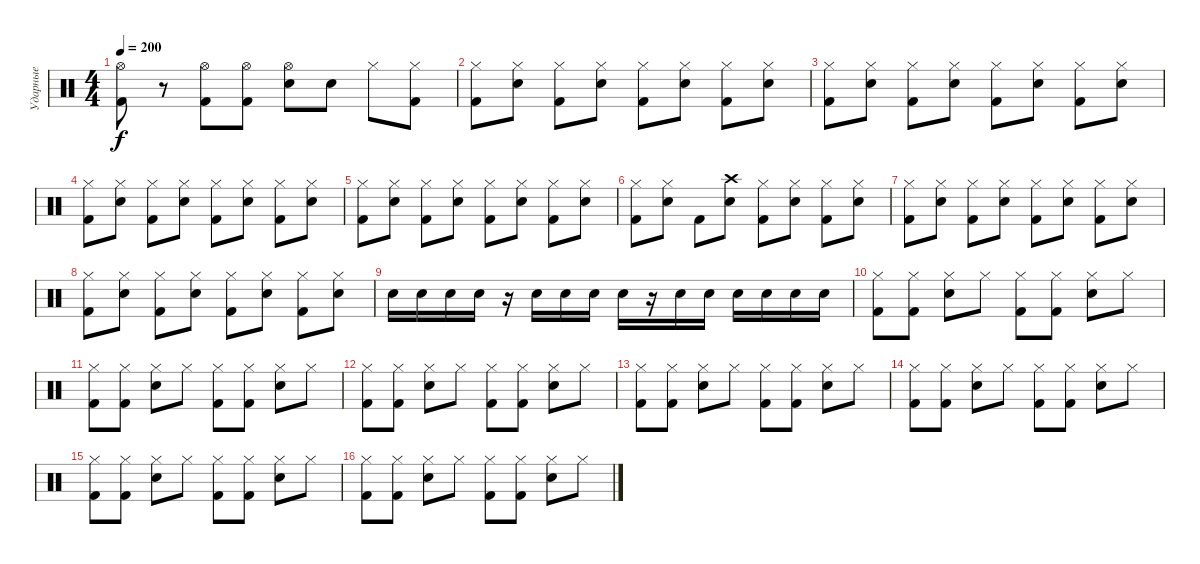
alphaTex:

\track ("Ударные" "Ударные") {instrument percussion}
\staff {score}
\articulation defaults
\ts (4 4)
\tempo 200
\clef neutral
\ks c
("Kick (hit) 2" "Hi-Hat (open)").8{dy f} r.8 ("Kick (hit) 2" "Hi-Hat (open)").8 ("Kick (hit) 2" "Hi-Hat (open)").8 ("Electric Snare (hit)" "Hi-Hat (open)").8 "Electric Snare (hit)".8 "Hi-Hat (closed)".8 ("Kick (hit) 2" "Hi-Hat (closed)").8 |
("Kick (hit) 2" "Hi-Hat (closed)").8 ("Electric Snare (hit)" "Hi-Hat (closed)").8 ("Kick (hit) 2" "Hi-Hat (closed)").8 ("Electric Snare (hit)" "Hi-Hat (closed)").8 ("Kick (hit) 2" "Hi-Hat (closed)").8 ("Electric Snare (hit)" "Hi-Hat (closed)").8 ("Kick (hit) 2" "Hi-Hat (closed)").8 ("Electric Snare (hit)" "Hi-Hat (closed)").8 |
("Kick (hit) 2" "Hi-Hat (closed)").8 ("Electric Snare (hit)" "Hi-Hat (closed)").8 ("Kick (hit) 2" "Hi-Hat (closed)").8 ("Electric Snare (hit)" "Hi-Hat (closed)").8 ("Kick (hit) 2" "Hi-Hat (closed)").8 ("Electric Snare (hit)" "Hi-Hat (closed)").8 ("Kick (hit) 2" "Hi-Hat (closed)").8 ("Electric Snare (hit)" "Hi-Hat (closed)").8 |
("Kick (hit) 2" "Hi-Hat (closed)").8 ("Electric Snare (hit)" "Hi-Hat (closed)").8 ("Kick (hit) 2" "Hi-Hat (closed)").8 ("Electric Snare (hit)" "Hi-Hat (closed)").8 ("Kick (hit) 2" "Hi-Hat (closed)").8 ("Electric Snare (hit)" "Hi-Hat (closed)").8 ("Kick (hit) 2" "Hi-Hat (closed)").8 ("Electric Snare (hit)" "Hi-Hat (closed)").8 |
("Kick (hit) 2" "Hi-Hat (closed)").8 ("Electric Snare (hit)" "Hi-Hat (closed)").8 ("Kick (hit) 2" "Hi-Hat (closed)").8 ("Electric Snare (hit)" "Hi-Hat (closed)").8 ("Kick (hit) 2" "Hi-Hat (closed)").8 ("Electric Snare (hit)" "Hi-Hat (closed)").8 ("Kick (hit) 2" "Hi-Hat (closed)").8 ("Electric Snare (hit)" "Hi-Hat (closed)").8 |
("Kick (hit) 2" "Hi-Hat (closed)").8 ("Electric Snare (hit)" "Hi-Hat (closed)").8 "Kick (hit) 2".8 ("Electric Snare (hit)" "Crash high (hit)").8 ("Kick (hit) 2" "Hi-Hat (closed)").8 ("Electric Snare (hit)" "Hi-Hat (closed)").8 ("Kick (hit) 2" "Hi-Hat (closed)").8 ("Electric Snare (hit)" "Hi-Hat (closed)").8 |
("Kick (hit) 2" "Hi-Hat (closed)").8 ("Electric Snare (hit)" "Hi-Hat (closed)").8 ("Kick (hit) 2" "Hi-Hat (closed)").8 ("Electric Snare (hit)" "Hi-Hat (closed)").8 ("Kick (hit) 2" "Hi-Hat (closed)").8 ("Electric Snare (hit)" "Hi-Hat (closed)").8 ("Kick (hit) 2" "Hi-Hat (closed)").8 ("Electric Snare (hit)" "Hi-Hat (closed)").8 |
("Kick (hit) 2" "Hi-Hat (closed)").8 ("Electric Snare (hit)" "Hi-Hat (closed)").8 ("Kick (hit) 2" "Hi-Hat (closed)").8 ("Electric Snare (hit)" "Hi-Hat (closed)").8 ("Kick (hit) 2" "Hi-Hat (closed)").8 ("Electric Snare (hit)" "Hi-Hat (closed)").8 ("Kick (hit) 2" "Hi-Hat (closed)").8 ("Electric Snare (hit)" "Hi-Hat (closed)").8 |
"Electric Snare (hit)".16 "Electric Snare (hit)".16 "Electric Snare (hit)".16 "Electric Snare (hit)".16 r.16 "Electric Snare (hit)".16 "Electric Snare (hit)".16 "Electric Snare (hit)".16 "Electric Snare (hit)".16 r.16 "Electric Snare (hit)".16 "Electric Snare (hit)".16 "Electric Snare (hit)".16 "Electric Snare (hit)".16 "Electric Snare (hit)".16 "Electric Snare (hit)".16 |
("Kick (hit) 2" "Hi-Hat (closed)").8 ("Kick (hit) 2" "Hi-Hat (closed)").8 ("Electric Snare (hit)" "Hi-Hat (closed)").8 "Hi-Hat (closed)".8 ("Kick (hit) 2" "Hi-Hat (closed)").8 ("Kick (hit) 2" "Hi-Hat (closed)").8 ("Electric Snare (hit)" "Hi-Hat (closed)").8 "Hi-Hat (closed)".8 |
("Kick (hit) 2" "Hi-Hat (closed)").8 ("Kick (hit) 2" "Hi-Hat (closed)").8 ("Electric Snare (hit)" "Hi-Hat (closed)").8 "Hi-Hat (closed)".8 ("Kick (hit) 2" "Hi-Hat (closed)").8 ("Kick (hit) 2" "Hi-Hat (closed)").8 ("Electric Snare (hit)" "Hi-Hat (closed)").8 "Hi-Hat (closed)".8 |
("Kick (hit) 2" "Hi-Hat (closed)").8 ("Kick (hit) 2" "Hi-Hat (closed)").8 ("Electric Snare (hit)" "Hi-Hat (closed)").8 "Hi-Hat (closed)".8 ("Kick (hit) 2" "Hi-Hat (closed)").8 ("Kick (hit) 2" "Hi-Hat (closed)").8 ("Electric Snare (hit)" "Hi-Hat (closed)").8 "Hi-Hat (closed)".8 |
("Kick (hit) 2" "Hi-Hat (closed)").8 ("Kick (hit) 2" "Hi-Hat (closed)").8 ("Electric Snare (hit)" "Hi-Hat (closed)").8 "Hi-Hat (closed)".8 ("Kick (hit) 2" "Hi-Hat (closed)").8 ("Kick (hit) 2" "Hi-Hat (closed)").8 ("Electric Snare (hit)" "Hi-Hat (closed)").8 "Hi-Hat (closed)".8 |
("Kick (hit) 2" "Hi-Hat (closed)").8 ("Kick (hit) 2" "Hi-Hat (closed)").8 ("Electric Snare (hit)" "Hi-Hat (closed)").8 "Hi-Hat (closed)".8 ("Kick (hit) 2" "Hi-Hat (closed)").8 ("Kick (hit) 2" "Hi-Hat (closed)").8 ("Electric Snare (hit)" "Hi-Hat (closed)").8 "Hi-Hat (closed)".8 |
("Kick (hit) 2" "Hi-Hat (closed)").8 ("Kick (hit) 2" "Hi-Hat (closed)").8 ("Electric Snare (hit)" "Hi-Hat (closed)").8 "Hi-Hat (closed)".8 ("Kick (hit) 2" "Hi-Hat (closed)").8 ("Kick (hit) 2" "Hi-Hat (closed)").8 ("Electric Snare (hit)" "Hi-Hat (closed)").8 "Hi-Hat (closed)".8 |
("Kick (hit) 2" "Hi-Hat (closed)").8 ("Kick (hit) 2" "Hi-Hat (closed)").8 ("Electric Snare (hit)" "Hi-Hat (closed)").8 "Hi-Hat (closed)".8 ("Kick (hit) 2" "Hi-Hat (closed)").8 ("Kick (hit) 2" "Hi-Hat (closed)").8 ("Electric Snare (hit)" "Hi-Hat (closed)").8 "Hi-Hat (closed)".8
